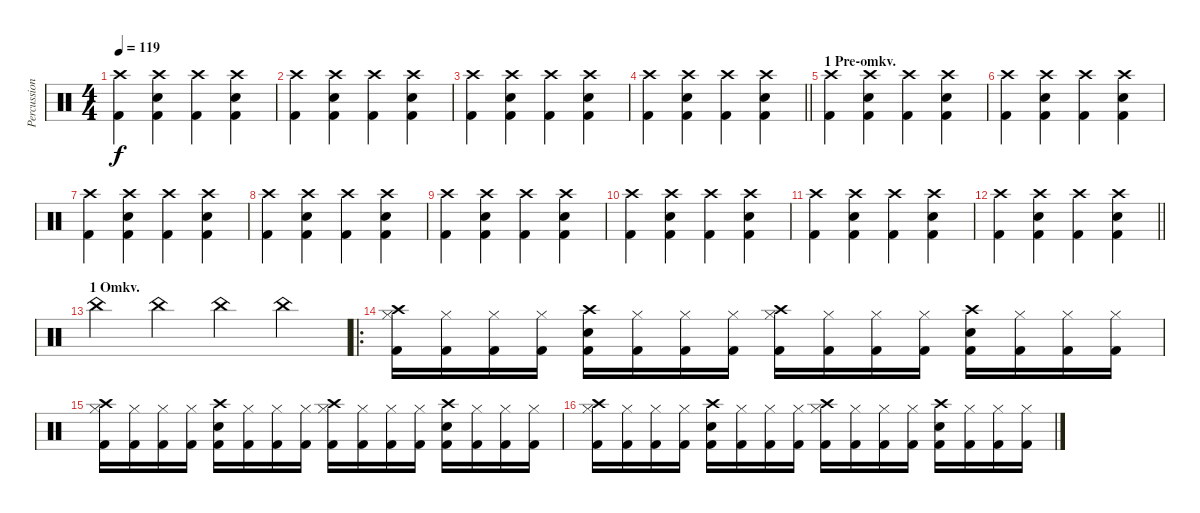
\track ("Percussion" "Percussion") {instrument percussion}
\staff {score}
\articulation defaults
\ts (4 4)
\tempo 119
\clef neutral
\ks c
("Crash high (hit)" "Kick (hit) 2").4{dy f} ("Crash high (hit)" "Snare (hit) 2" "Kick (hit) 2").4 ("Crash high (hit)" "Kick (hit) 2").4 ("Crash high (hit)" "Snare (hit) 2" "Kick (hit) 2").4 |
("Crash high (hit)" "Kick (hit) 2").4 ("Crash high (hit)" "Snare (hit) 2" "Kick (hit) 2").4 ("Crash high (hit)" "Kick (hit) 2").4 ("Crash high (hit)" "Snare (hit) 2" "Kick (hit) 2").4 |
("Crash high (hit)" "Kick (hit) 2").4 ("Crash high (hit)" "Snare (hit) 2" "Kick (hit) 2").4 ("Crash high (hit)" "Kick (hit) 2").4 ("Crash high (hit)" "Snare (hit) 2" "Kick (hit) 2").4 |
\barLineRight lightlight
("Crash high (hit)" "Kick (hit) 2").4 ("Crash high (hit)" "Snare (hit) 2" "Kick (hit) 2").4 ("Crash high (hit)" "Kick (hit) 2").4 ("Crash high (hit)" "Snare (hit) 2" "Kick (hit) 2").4 |
\section ("" "1 Pre-omkv.")
("Crash high (hit)" "Kick (hit) 2").4 ("Crash high (hit)" "Snare (hit) 2" "Kick (hit) 2").4 ("Crash high (hit)" "Kick (hit) 2").4 ("Crash high (hit)" "Snare (hit) 2" "Kick (hit) 2").4 |
("Crash high (hit)" "Kick (hit) 2").4 ("Crash high (hit)" "Snare (hit) 2" "Kick (hit) 2").4 ("Crash high (hit)" "Kick (hit) 2").4 ("Crash high (hit)" "Snare (hit) 2" "Kick (hit) 2").4 |
("Crash high (hit)" "Kick (hit) 2").4 ("Crash high (hit)" "Snare (hit) 2" "Kick (hit) 2").4 ("Crash high (hit)" "Kick (hit) 2").4 ("Crash high (hit)" "Snare (hit) 2" "Kick (hit) 2").4 |
("Crash high (hit)" "Kick (hit) 2").4 ("Crash high (hit)" "Snare (hit) 2" "Kick (hit) 2").4 ("Crash high (hit)" "Kick (hit) 2").4 ("Crash high (hit)" "Snare (hit) 2" "Kick (hit) 2").4 |
("Crash high (hit)" "Kick (hit) 2").4 ("Crash high (hit)" "Snare (hit) 2" "Kick (hit) 2").4 ("Crash high (hit)" "Kick (hit) 2").4 ("Crash high (hit)" "Snare (hit) 2" "Kick (hit) 2").4 |
("Crash high (hit)" "Kick (hit) 2").4 ("Crash high (hit)" "Snare (hit) 2" "Kick (hit) 2").4 ("Crash high (hit)" "Kick (hit) 2").4 ("Crash high (hit)" "Snare (hit) 2" "Kick (hit) 2").4 |
("Crash high (hit)" "Kick (hit) 2").4 ("Crash high (hit)" "Snare (hit) 2" "Kick (hit) 2").4 ("Crash high (hit)" "Kick (hit) 2").4 ("Crash high (hit)" "Snare (hit) 2" "Kick (hit) 2").4 |
\barLineRight lightlight
("Crash high (hit)" "Kick (hit) 2").4 ("Crash high (hit)" "Snare (hit) 2" "Kick (hit) 2").4 ("Crash high (hit)" "Kick (hit) 2").4 ("Crash high (hit)" "Snare (hit) 2" "Kick (hit) 2").4 |
\section ("" "1 Omkv.")
"China (hit)".4 "China (hit)".4 "China (hit)".4 "China (hit)".4 |
\ro
("Crash high (hit)" "Hi-Hat (closed)" "Kick (hit) 2").16 ("Hi-Hat (closed)" "Kick (hit) 2").16 ("Hi-Hat (closed)" "Kick (hit) 2").16 ("Hi-Hat (closed)" "Kick (hit) 2").16 ("Crash high (hit)" "Snare (hit) 2" "Kick (hit) 2").16 ("Hi-Hat (closed)" "Kick (hit) 2").16 ("Hi-Hat (closed)" "Kick (hit) 2").16 ("Hi-Hat (closed)" "Kick (hit) 2").16 ("Crash high (hit)" "Hi-Hat (closed)" "Kick (hit) 2").16 ("Hi-Hat (closed)" "Kick (hit) 2").16 ("Hi-Hat (closed)" "Kick (hit) 2").16 ("Hi-Hat (closed)" "Kick (hit) 2").16 ("Crash high (hit)" "Snare (hit) 2" "Kick (hit) 2").16 ("Hi-Hat (closed)" "Kick (hit) 2").16 ("Hi-Hat (closed)" "Kick (hit) 2").16 ("Hi-Hat (closed)" "Kick (hit) 2").16 |
("Crash high (hit)" "Hi-Hat (closed)" "Kick (hit) 2").16 ("Hi-Hat (closed)" "Kick (hit) 2").16 ("Hi-Hat (closed)" "Kick (hit) 2").16 ("Hi-Hat (closed)" "Kick (hit) 2").16 ("Crash high (hit)" "Snare (hit) 2" "Kick (hit) 2").16 ("Hi-Hat (closed)" "Kick (hit) 2").16 ("Hi-Hat (closed)" "Kick (hit) 2").16 ("Hi-Hat (closed)" "Kick (hit) 2").16 ("Crash high (hit)" "Hi-Hat (closed)" "Kick (hit) 2").16 ("Hi-Hat (closed)" "Kick (hit) 2").16 ("Hi-Hat (closed)" "Kick (hit) 2").16 ("Hi-Hat (closed)" "Kick (hit) 2").16 ("Crash high (hit)" "Snare (hit) 2" "Kick (hit) 2").16 ("Hi-Hat (closed)" "Kick (hit) 2").16 ("Hi-Hat (closed)" "Kick (hit) 2").16 ("Hi-Hat (closed)" "Kick (hit) 2").16 |
("Crash high (hit)" "Hi-Hat (closed)" "Kick (hit) 2").16 ("Hi-Hat (closed)" "Kick (hit) 2").16 ("Hi-Hat (closed)" "Kick (hit) 2").16 ("Hi-Hat (closed)" "Kick (hit) 2").16 ("Crash high (hit)" "Snare (hit) 2" "Kick (hit) 2").16 ("Hi-Hat (closed)" "Kick (hit) 2").16 ("Hi-Hat (closed)" "Kick (hit) 2").16 ("Hi-Hat (closed)" "Kick (hit) 2").16 ("Crash high (hit)" "Hi-Hat (closed)" "Kick (hit) 2").16 ("Hi-Hat (closed)" "Kick (hit) 2").16 ("Hi-Hat (closed)" "Kick (hit) 2").16 ("Hi-Hat (closed)" "Kick (hit) 2").16 ("Crash high (hit)" "Snare (hit) 2" "Kick (hit) 2").16 ("Hi-Hat (closed)" "Kick (hit) 2").16 ("Hi-Hat (closed)" "Kick (hit) 2").16 ("Hi-Hat (closed)" "Kick (hit) 2").16
